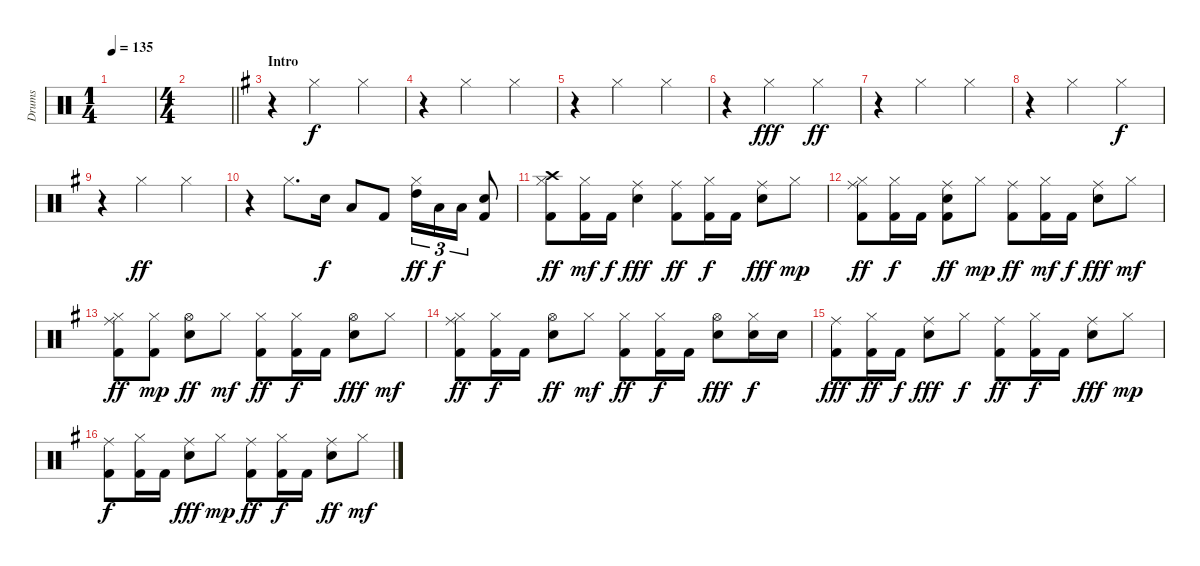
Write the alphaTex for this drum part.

\track ("Drums" "Drums") {instrument percussion}
\staff {score}
\articulation defaults
\ts (1 4)
\tempo 135
\clef neutral
\ks c
|
\ts (4 4)
\barLineRight lightlight
|
\section ("" "Intro")
\ks g
r.4 "Hi-Hat (closed)".2 "Hi-Hat (closed)".4 |
r.4 "Hi-Hat (closed)".2 "Hi-Hat (closed)".4 |
r.4 "Hi-Hat (closed)".2 "Hi-Hat (closed)".4 |
r.4 "Hi-Hat (closed)".2{dy fff} "Hi-Hat (closed)".4{dy ff} |
r.4 "Hi-Hat (closed)".2 "Hi-Hat (closed)".4 |
r.4 "Hi-Hat (closed)".2 "Hi-Hat (closed)".4{dy f} |
r.4 "Hi-Hat (closed)".2{dy ff} "Hi-Hat (closed)".4 |
r.4 "Hi-Hat (closed)".8{d} "Electric Snare (hit)".16{dy f} "Low Tom (hit)".8 "Kick (hit) 2".8 ("Hi-Hat (closed)" "High Tom (hit)").16{tu (3 2) dy ff} "Low Tom (hit)".16{tu (3 2) dy f} "Low Floor Tom (hit)".16{tu (3 2)} ("Electric Snare (hit)" "Kick (hit) 2").8 |
("Hi-Hat (closed)" "Crash high (hit)" "Kick (hit) 2").8{dy ff} ("Hi-Hat (closed)" "Kick (hit) 2").16{dy mf} "Kick (hit) 2".16{dy f} ("Ride (middle)" "Electric Snare (hit)").4{dy fff} ("Ride (middle)" "Kick (hit) 2").8{dy ff} ("Hi-Hat (closed)" "Kick (hit) 2").16{dy f} "Kick (hit) 2".16 ("Ride (middle)" "Electric Snare (hit)").8{dy fff} "Hi-Hat (closed)".8{dy mp} |
("Hi-Hat (closed)" "Ride (middle)" "Kick (hit) 2").8{dy ff} ("Hi-Hat (closed)" "Kick (hit) 2").16{dy f} "Kick (hit) 2".16 ("Ride (middle)" "Electric Snare (hit)" "Kick (hit) 2").8{dy ff} "Hi-Hat (closed)".8{dy mp} ("Ride (middle)" "Kick (hit) 2").8{dy ff} ("Hi-Hat (closed)" "Kick (hit) 2").16{dy mf} "Kick (hit) 2".16{dy f} ("Ride (middle)" "Electric Snare (hit)").8{dy fff} "Hi-Hat (closed)".8{dy mf} |
("Hi-Hat (closed)" "Ride (middle)" "Kick (hit) 2").8{dy ff} ("Hi-Hat (closed)" "Kick (hit) 2").8{dy mp} ("Hi-Hat (open)" "Electric Snare (hit)").8{dy ff} "Hi-Hat (closed)".8{dy mf} ("Hi-Hat (closed)" "Kick (hit) 2").8{dy ff} ("Hi-Hat (closed)" "Kick (hit) 2").16{dy f} "Kick (hit) 2".16 ("Hi-Hat (open)" "Electric Snare (hit)").8{dy fff} "Hi-Hat (closed)".8{dy mf} |
("Hi-Hat (closed)" "Ride (middle)" "Kick (hit) 2").8{dy ff} ("Hi-Hat (closed)" "Kick (hit) 2").16{dy f} "Kick (hit) 2".16 ("Hi-Hat (open)" "Electric Snare (hit)").8{dy ff} "Hi-Hat (closed)".8{dy mf} ("Hi-Hat (closed)" "Kick (hit) 2").8{dy ff} ("Hi-Hat (closed)" "Kick (hit) 2").16{dy f} "Kick (hit) 2".16 ("Hi-Hat (open)" "Electric Snare (hit)").8{dy fff} ("Hi-Hat (closed)" "Electric Snare (hit)").16{dy f} "Electric Snare (hit)".16 |
("Ride (middle)" "Kick (hit) 2").8{dy fff} ("Hi-Hat (closed)" "Kick (hit) 2").16{dy ff} "Kick (hit) 2".16{dy f} ("Ride (middle)" "Electric Snare (hit)").8{dy fff} "Hi-Hat (closed)".8{dy f} ("Ride (middle)" "Kick (hit) 2").8{dy ff} ("Hi-Hat (closed)" "Kick (hit) 2").16{dy f} "Kick (hit) 2".16 ("Ride (middle)" "Electric Snare (hit)").8{dy fff} "Hi-Hat (closed)".8{dy mp} |
("Ride (middle)" "Kick (hit) 2").8{dy f} ("Hi-Hat (closed)" "Kick (hit) 2").16 "Kick (hit) 2".16 ("Ride (middle)" "Electric Snare (hit)").8{dy fff} "Hi-Hat (closed)".8{dy mp} ("Ride (middle)" "Kick (hit) 2").8{dy ff} ("Hi-Hat (closed)" "Kick (hit) 2").16{dy f} "Kick (hit) 2".16 ("Ride (middle)" "Electric Snare (hit)").8{dy ff} "Hi-Hat (closed)".8{dy mf}
